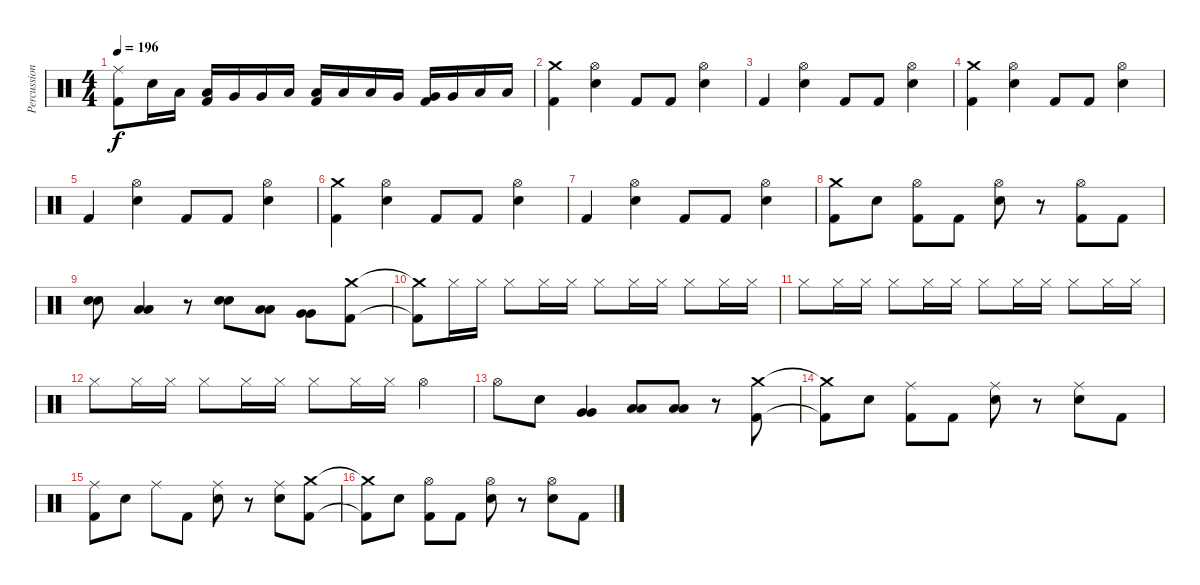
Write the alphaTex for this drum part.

\track ("Percussion" "Percussion") {instrument percussion}
\staff {score}
\articulation defaults
\ts (4 4)
\tempo 196
\clef neutral
\ks c
("Ride (middle)" "Kick (hit) 2").8{dy f} "Electric Snare (hit)".16 "Low Tom (hit)".16 ("Low Tom (hit)" "Kick (hit) 2").16 "Very Low Tom (hit)".16 "Very Low Tom (hit)".16 "Low Floor Tom (hit)".16 ("Low Tom (hit)" "Kick (hit) 2").16 "Low Tom (hit)".16 "Low Tom (hit)".16 "Very Low Tom (hit)".16 ("Very Low Tom (hit)" "Kick (hit) 2").16 "Very Low Tom (hit)".16 "Low Floor Tom (hit)".16 "Low Floor Tom (hit)".16 |
("Crash medium (hit)" "Kick (hit) 2").4 ("Hi-Hat (open)" "Electric Snare (hit)").4 "Kick (hit) 2".8 "Kick (hit) 2".8 ("Hi-Hat (open)" "Electric Snare (hit)").4 |
"Kick (hit) 2".4 ("Hi-Hat (open)" "Electric Snare (hit)").4 "Kick (hit) 2".8 "Kick (hit) 2".8 ("Hi-Hat (open)" "Electric Snare (hit)").4 |
("Crash medium (hit)" "Kick (hit) 2").4 ("Hi-Hat (open)" "Electric Snare (hit)").4 "Kick (hit) 2".8 "Kick (hit) 2".8 ("Hi-Hat (open)" "Electric Snare (hit)").4 |
"Kick (hit) 2".4 ("Hi-Hat (open)" "Electric Snare (hit)").4 "Kick (hit) 2".8 "Kick (hit) 2".8 ("Hi-Hat (open)" "Electric Snare (hit)").4 |
("Crash medium (hit)" "Kick (hit) 2").4 ("Hi-Hat (open)" "Electric Snare (hit)").4 "Kick (hit) 2".8 "Kick (hit) 2".8 ("Hi-Hat (open)" "Electric Snare (hit)").4 |
"Kick (hit) 2".4 ("Hi-Hat (open)" "Electric Snare (hit)").4 "Kick (hit) 2".8 "Kick (hit) 2".8 ("Hi-Hat (open)" "Electric Snare (hit)").4 |
("Crash medium (hit)" "Kick (hit) 2").8 "Electric Snare (hit)".8 ("Hi-Hat (open)" "Kick (hit) 2").8 "Kick (hit) 2".8 ("Hi-Hat (open)" "Electric Snare (hit)").8 r.8 ("Hi-Hat (open)" "Kick (hit) 2").8 "Kick (hit) 2".8 |
("Electric Snare (hit)" "Electric Snare (hit)").8 ("Low Tom (hit)" "Low Tom (hit)").4 r.8 ("Electric Snare (hit)" "Electric Snare (hit)").8 ("Low Tom (hit)" "Low Tom (hit)").8 ("Very Low Tom (hit)" "Very Low Tom (hit)").8 ("Crash medium (hit)" "Kick (hit) 2").8 |
("Crash medium (hit)"{t} "Kick (hit) 2"{t}).8 "Hi-Hat (closed)".16 "Hi-Hat (closed)".16 "Hi-Hat (closed)".8 "Hi-Hat (closed)".16 "Hi-Hat (closed)".16 "Hi-Hat (closed)".8 "Hi-Hat (closed)".16 "Hi-Hat (closed)".16 "Hi-Hat (closed)".8 "Hi-Hat (closed)".16 "Hi-Hat (closed)".16 |
"Hi-Hat (closed)".8 "Hi-Hat (closed)".16 "Hi-Hat (closed)".16 "Hi-Hat (closed)".8 "Hi-Hat (closed)".16 "Hi-Hat (closed)".16 "Hi-Hat (closed)".8 "Hi-Hat (closed)".16 "Hi-Hat (closed)".16 "Hi-Hat (closed)".8 "Hi-Hat (closed)".16 "Hi-Hat (closed)".16 |
"Hi-Hat (closed)".8 "Hi-Hat (closed)".16 "Hi-Hat (closed)".16 "Hi-Hat (closed)".8 "Hi-Hat (closed)".16 "Hi-Hat (closed)".16 "Hi-Hat (closed)".8 "Hi-Hat (closed)".16 "Hi-Hat (closed)".16 "Hi-Hat (open)".4 |
"Hi-Hat (open)".8 "Electric Snare (hit)".8 ("Very Low Tom (hit)" "Very Low Tom (hit)").4 ("Low Tom (hit)" "Low Tom (hit)").8 ("Low Tom (hit)" "Low Tom (hit)").8 r.8 ("Crash medium (hit)" "Kick (hit) 2").8 |
("Crash medium (hit)"{t} "Kick (hit) 2"{t}).8 "Electric Snare (hit)".8 ("Ride (middle)" "Kick (hit) 2").8 "Kick (hit) 2".8 ("Ride (middle)" "Electric Snare (hit)").8 r.8 ("Ride (middle)" "Electric Snare (hit)").8 "Kick (hit) 2".8 |
("Ride (middle)" "Kick (hit) 2").8 "Electric Snare (hit)".8 "Ride (middle)".8 "Kick (hit) 2".8 ("Ride (middle)" "Electric Snare (hit)").8 r.8 ("Ride (middle)" "Electric Snare (hit)").8 ("Crash medium (hit)" "Kick (hit) 2").8 |
("Crash medium (hit)"{t} "Kick (hit) 2"{t}).8 "Electric Snare (hit)".8 ("Hi-Hat (open)" "Kick (hit) 2").8 "Kick (hit) 2".8 ("Hi-Hat (open)" "Electric Snare (hit)").8 r.8 ("Hi-Hat (open)" "Electric Snare (hit)").8 "Kick (hit) 2".8
